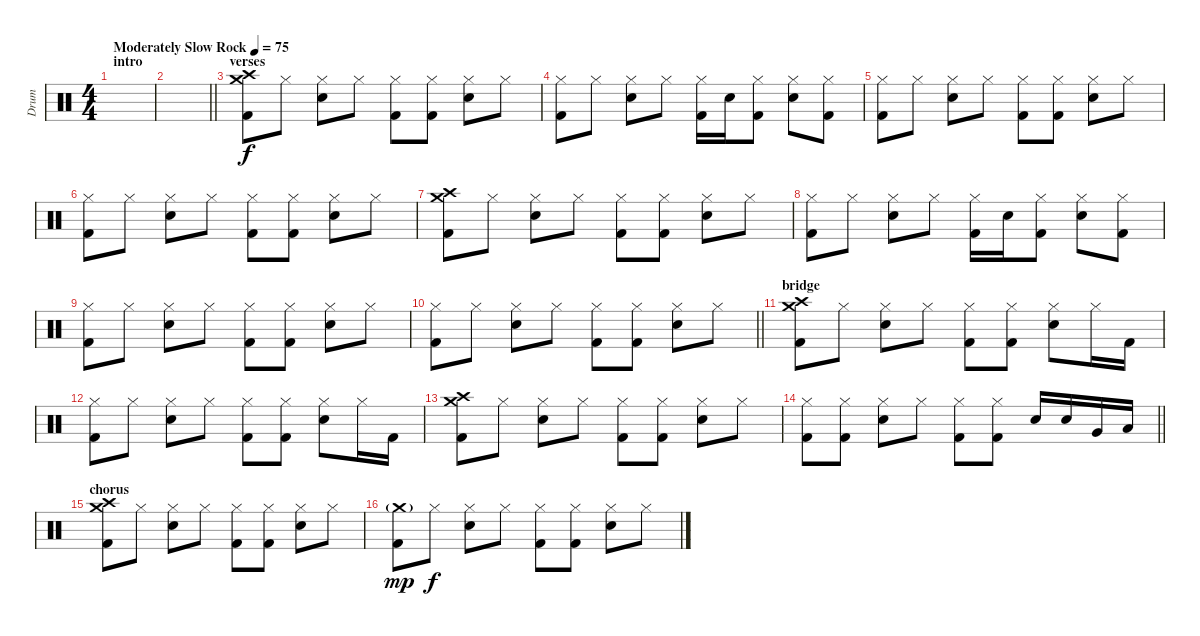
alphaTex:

\track ("Drum" "Drum") {instrument percussion}
\staff {score}
\articulation defaults
\ts (4 4)
\section ("" "intro")
\tempo (75 "Moderately Slow Rock")
\clef neutral
\ks c
|
\barLineRight lightlight
|
\section ("" "verses")
("Kick (hit) 2" "Crash high (hit)" "Crash medium (hit)").8 "Hi-Hat (closed)".8 ("Electric Snare (hit)" "Hi-Hat (closed)").8 "Hi-Hat (closed)".8 ("Kick (hit) 2" "Hi-Hat (closed)").8 ("Kick (hit) 2" "Hi-Hat (closed)").8 ("Electric Snare (hit)" "Hi-Hat (closed)").8 "Hi-Hat (closed)".8 |
("Kick (hit) 2" "Hi-Hat (closed)").8 "Hi-Hat (closed)".8 ("Electric Snare (hit)" "Hi-Hat (closed)").8 "Hi-Hat (closed)".8 ("Kick (hit) 2" "Hi-Hat (closed)").16 "Electric Snare (hit)".16 ("Kick (hit) 2" "Hi-Hat (closed)").8 ("Electric Snare (hit)" "Hi-Hat (closed)").8 ("Kick (hit) 2" "Hi-Hat (closed)").8 |
("Kick (hit) 2" "Hi-Hat (closed)").8 "Hi-Hat (closed)".8 ("Electric Snare (hit)" "Hi-Hat (closed)").8 "Hi-Hat (closed)".8 ("Kick (hit) 2" "Hi-Hat (closed)").8 ("Kick (hit) 2" "Hi-Hat (closed)").8 ("Electric Snare (hit)" "Hi-Hat (closed)").8 "Hi-Hat (closed)".8 |
("Kick (hit) 2" "Hi-Hat (closed)").8 "Hi-Hat (closed)".8 ("Electric Snare (hit)" "Hi-Hat (closed)").8 "Hi-Hat (closed)".8 ("Kick (hit) 2" "Hi-Hat (closed)").8 ("Kick (hit) 2" "Hi-Hat (closed)").8 ("Electric Snare (hit)" "Hi-Hat (closed)").8 "Hi-Hat (closed)".8 |
("Kick (hit) 2" "Crash high (hit)" "Crash medium (hit)").8 "Hi-Hat (closed)".8 ("Electric Snare (hit)" "Hi-Hat (closed)").8 "Hi-Hat (closed)".8 ("Kick (hit) 2" "Hi-Hat (closed)").8 ("Kick (hit) 2" "Hi-Hat (closed)").8 ("Electric Snare (hit)" "Hi-Hat (closed)").8 "Hi-Hat (closed)".8 |
("Kick (hit) 2" "Hi-Hat (closed)").8 "Hi-Hat (closed)".8 ("Electric Snare (hit)" "Hi-Hat (closed)").8 "Hi-Hat (closed)".8 ("Kick (hit) 2" "Hi-Hat (closed)").16 "Electric Snare (hit)".16 ("Kick (hit) 2" "Hi-Hat (closed)").8 ("Electric Snare (hit)" "Hi-Hat (closed)").8 ("Kick (hit) 2" "Hi-Hat (closed)").8 |
("Kick (hit) 2" "Hi-Hat (closed)").8 "Hi-Hat (closed)".8 ("Electric Snare (hit)" "Hi-Hat (closed)").8 "Hi-Hat (closed)".8 ("Kick (hit) 2" "Hi-Hat (closed)").8 ("Kick (hit) 2" "Hi-Hat (closed)").8 ("Electric Snare (hit)" "Hi-Hat (closed)").8 "Hi-Hat (closed)".8 |
\barLineRight lightlight
("Kick (hit) 2" "Hi-Hat (closed)").8 "Hi-Hat (closed)".8 ("Electric Snare (hit)" "Hi-Hat (closed)").8 "Hi-Hat (closed)".8 ("Kick (hit) 2" "Hi-Hat (closed)").8 ("Kick (hit) 2" "Hi-Hat (closed)").8 ("Electric Snare (hit)" "Hi-Hat (closed)").8 "Hi-Hat (closed)".8 |
\section ("" "bridge")
("Kick (hit) 2" "Crash high (hit)" "Crash medium (hit)").8 "Hi-Hat (closed)".8 ("Electric Snare (hit)" "Hi-Hat (closed)").8 "Hi-Hat (closed)".8 ("Kick (hit) 2" "Hi-Hat (closed)").8 ("Kick (hit) 2" "Hi-Hat (closed)").8 ("Electric Snare (hit)" "Hi-Hat (closed)").8 "Hi-Hat (closed)".16 "Kick (hit) 2".16 |
("Kick (hit) 2" "Hi-Hat (closed)").8 "Hi-Hat (closed)".8 ("Electric Snare (hit)" "Hi-Hat (closed)").8 "Hi-Hat (closed)".8 ("Kick (hit) 2" "Hi-Hat (closed)").8 ("Kick (hit) 2" "Hi-Hat (closed)").8 ("Electric Snare (hit)" "Hi-Hat (closed)").8 "Hi-Hat (closed)".16 "Kick (hit) 2".16 |
("Kick (hit) 2" "Crash high (hit)" "Crash medium (hit)").8 "Hi-Hat (closed)".8 ("Electric Snare (hit)" "Hi-Hat (closed)").8 "Hi-Hat (closed)".8 ("Kick (hit) 2" "Hi-Hat (closed)").8 ("Kick (hit) 2" "Hi-Hat (closed)").8 ("Electric Snare (hit)" "Hi-Hat (closed)").8 "Hi-Hat (closed)".8 |
\barLineRight lightlight
("Kick (hit) 2" "Hi-Hat (closed)").8 ("Kick (hit) 2" "Hi-Hat (closed)").8 ("Electric Snare (hit)" "Hi-Hat (closed)").8 "Hi-Hat (closed)".8 ("Kick (hit) 2" "Hi-Hat (closed)").8 ("Kick (hit) 2" "Hi-Hat (closed)").8 "Electric Snare (hit)".16 "Electric Snare (hit)".16 "Very Low Tom (hit)".16 "Low Floor Tom (hit)".16 |
\section ("" "chorus")
("Kick (hit) 2" "Crash high (hit)" "Crash medium (hit)").8 "Hi-Hat (closed)".8 ("Electric Snare (hit)" "Hi-Hat (closed)").8 "Hi-Hat (closed)".8 ("Kick (hit) 2" "Hi-Hat (closed)").8 ("Kick (hit) 2" "Hi-Hat (closed)").8 ("Electric Snare (hit)" "Hi-Hat (closed)").8 "Hi-Hat (closed)".8 |
("Kick (hit) 2" "Crash medium (hit)"{g}).8{dy mp} "Hi-Hat (closed)".8{dy f} ("Electric Snare (hit)" "Hi-Hat (closed)").8 "Hi-Hat (closed)".8 ("Kick (hit) 2" "Hi-Hat (closed)").8 ("Kick (hit) 2" "Hi-Hat (closed)").8 ("Electric Snare (hit)" "Hi-Hat (closed)").8 "Hi-Hat (closed)".8
